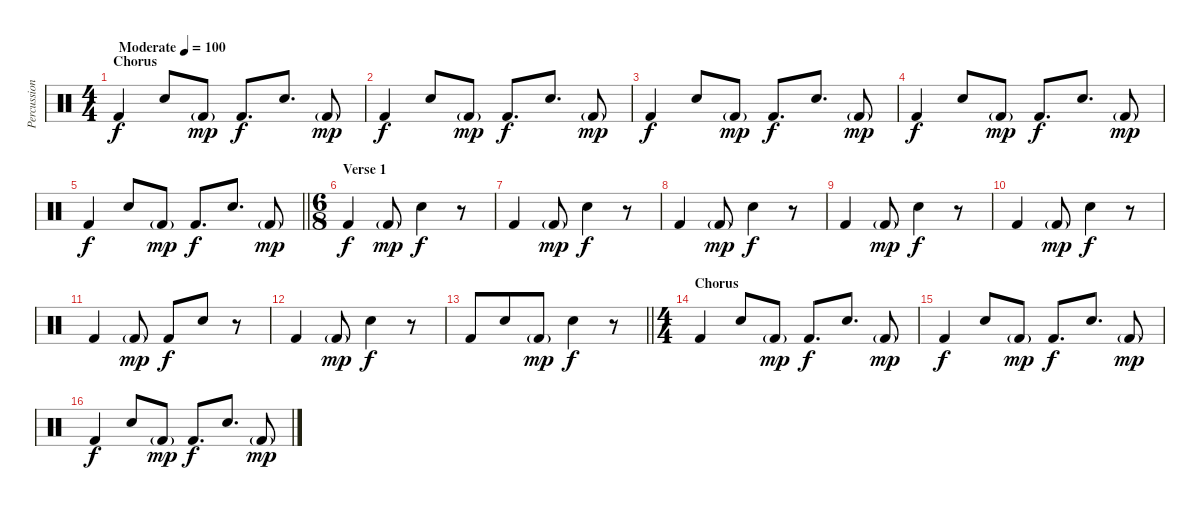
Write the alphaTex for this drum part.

\track ("Percussion" "Percussion") {instrument percussion}
\staff {score}
\articulation defaults
\ts (4 4)
\section ("" "Chorus")
\tempo (100 "Moderate")
\clef neutral
\ks c "Kick (hit) 2".4{dy f} "Snare (hit) 2".8 "Kick (hit) 2"{g}.8{dy mp} "Kick (hit) 2".8{d dy f} "Snare (hit) 2".8{d} "Kick (hit) 2"{g}.8{dy mp}
|
"Kick (hit) 2".4{dy f} "Snare (hit) 2".8 "Kick (hit) 2"{g}.8{dy mp} "Kick (hit) 2".8{d dy f} "Snare (hit) 2".8{d} "Kick (hit) 2"{g}.8{dy mp} |
"Kick (hit) 2".4{dy f} "Snare (hit) 2".8 "Kick (hit) 2"{g}.8{dy mp} "Kick (hit) 2".8{d dy f} "Snare (hit) 2".8{d} "Kick (hit) 2"{g}.8{dy mp} |
"Kick (hit) 2".4{dy f} "Snare (hit) 2".8 "Kick (hit) 2"{g}.8{dy mp} "Kick (hit) 2".8{d dy f} "Snare (hit) 2".8{d} "Kick (hit) 2"{g}.8{dy mp} |
\barLineRight lightlight "Kick (hit) 2".4{dy f} "Snare (hit) 2".8 "Kick (hit) 2"{g}.8{dy mp} "Kick (hit) 2".8{d dy f} "Snare (hit) 2".8{d} "Kick (hit) 2"{g}.8{dy mp}
|
\ts (6 8)
\section ("" "Verse 1")
"Kick (hit) 2".4{dy f} "Kick (hit) 2"{g}.8{dy mp} "Snare (hit) 2".4{dy f} r.8 |
"Kick (hit) 2".4 "Kick (hit) 2"{g}.8{dy mp} "Snare (hit) 2".4{dy f} r.8 |
"Kick (hit) 2".4 "Kick (hit) 2"{g}.8{dy mp} "Snare (hit) 2".4{dy f} r.8 |
"Kick (hit) 2".4 "Kick (hit) 2"{g}.8{dy mp} "Snare (hit) 2".4{dy f} r.8 |
"Kick (hit) 2".4 "Kick (hit) 2"{g}.8{dy mp} "Snare (hit) 2".4{dy f} r.8 |
"Kick (hit) 2".4 "Kick (hit) 2"{g}.8{dy mp} "Kick (hit) 2".8{dy f} "Snare (hit) 2".8 r.8 |
"Kick (hit) 2".4 "Kick (hit) 2"{g}.8{dy mp} "Snare (hit) 2".4{dy f} r.8 |
\barLineRight lightlight "Kick (hit) 2".8 "Snare (hit) 2".8 "Kick (hit) 2"{g}.8{dy mp} "Snare (hit) 2".4{dy f}
r.8 |
\ts (4 4)
\section ("" "Chorus")
"Kick (hit) 2".4 "Snare (hit) 2".8 "Kick (hit) 2"{g}.8{dy mp} "Kick (hit) 2".8{d dy f} "Snare (hit) 2".8{d} "Kick (hit) 2"{g}.8{dy mp} |
"Kick (hit) 2".4{dy f} "Snare (hit) 2".8 "Kick (hit) 2"{g}.8{dy mp} "Kick (hit) 2".8{d dy f} "Snare (hit) 2".8{d} "Kick (hit) 2"{g}.8{dy mp} |
"Kick (hit) 2".4{dy f} "Snare (hit) 2".8 "Kick (hit) 2"{g}.8{dy mp} "Kick (hit) 2".8{d dy f} "Snare (hit) 2".8{d} "Kick (hit) 2"{g}.8{dy mp}
